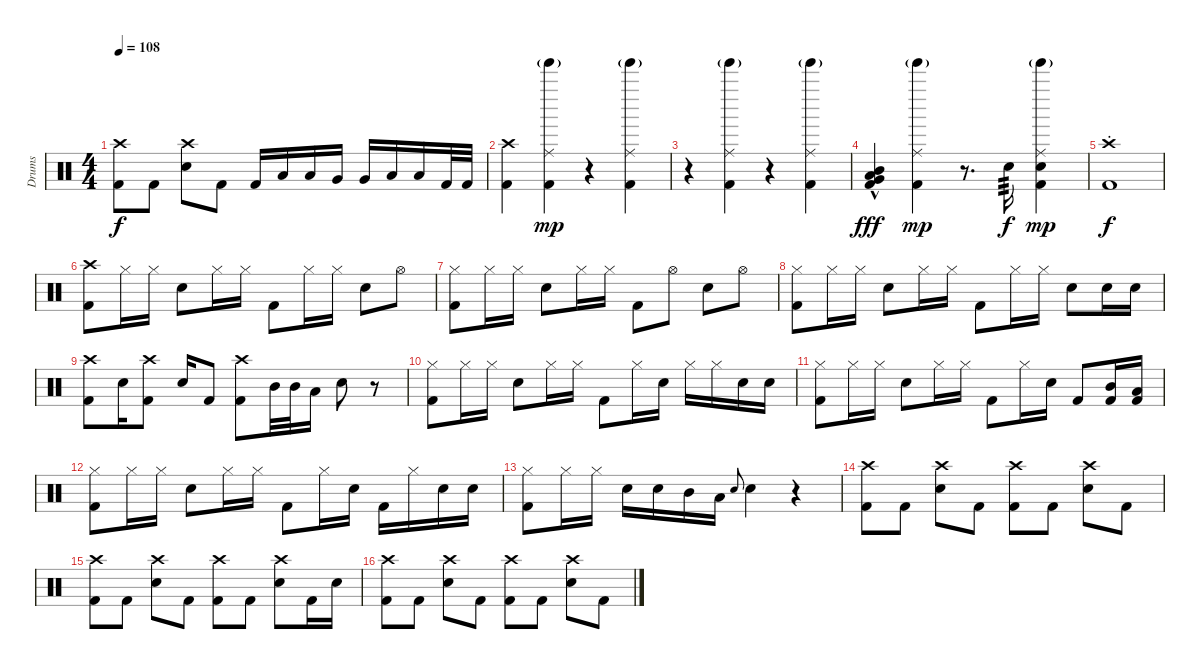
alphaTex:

\track ("Drums" "Drums") {instrument percussion}
\staff {score}
\articulation defaults
\ts (4 4)
\tempo 108
\clef neutral
\ks c
("Crash high (hit)" "Kick (hit) 2").8{dy f} "Kick (hit) 2".8 ("Crash high (hit)" "Electric Snare (hit)").8 "Kick (hit) 2".8 "Kick (hit) 2".16 "Low Tom (hit)".16 "Low Tom (hit)".16 "Very Low Tom (hit)".16 "Very Low Tom (hit)".16 "Low Floor Tom (hit)".16 "Low Floor Tom (hit)".16 "Kick (hit) 2".32 "Kick (hit) 2".32 |
("Crash high (hit)" "Kick (hit) 2").4 ("Tinkle Bell (hit)"{g} "Ride (middle)" "Kick (hit) 2").4{dy mp} r.4 ("Tinkle Bell (hit)"{g} "Ride (middle)" "Kick (hit) 2").4 |
r.4 ("Tinkle Bell (hit)"{g} "Ride (middle)" "Kick (hit) 2").4 r.4 ("Tinkle Bell (hit)"{g} "Ride (middle)" "Kick (hit) 2").4 |
("Very Low Tom (hit)" "Mid Tom (hit)"{hac} "Low Tom (hit)"{hac} "Kick (hit) 2"{hac}).4{dy fff} ("Tinkle Bell (hit)"{g} "Ride (middle)" "Kick (hit) 2").4{dy mp} r.8{d} "Electric Snare (hit)".16{tp 3 dy f} ("Tinkle Bell (hit)"{g} "Ride (middle)" "Electric Snare (hit)" "Kick (hit) 2").4{dy mp} |
("Crash high (hit)"{st} "Kick (hit) 2").1{dy f} |
("Crash high (hit)" "Kick (hit) 2").8 "Hi-Hat (closed)".16 "Hi-Hat (closed)".16 "Electric Snare (hit)".8 "Hi-Hat (closed)".16 "Hi-Hat (closed)".16 "Kick (hit) 2".8 "Hi-Hat (closed)".16 "Hi-Hat (closed)".16 "Electric Snare (hit)".8 "Hi-Hat (open)".8 |
("Hi-Hat (closed)" "Kick (hit) 2").8 "Hi-Hat (closed)".16 "Hi-Hat (closed)".16 "Electric Snare (hit)".8 "Hi-Hat (closed)".16 "Hi-Hat (closed)".16 "Kick (hit) 2".8 "Hi-Hat (open)".8 "Electric Snare (hit)".8 "Hi-Hat (open)".8 |
("Hi-Hat (closed)" "Kick (hit) 2").8 "Hi-Hat (closed)".16 "Hi-Hat (closed)".16 "Electric Snare (hit)".8 "Hi-Hat (closed)".16 "Hi-Hat (closed)".16 "Kick (hit) 2".8 "Hi-Hat (closed)".16 "Hi-Hat (closed)".16 "Electric Snare (hit)".8 "Electric Snare (hit)".16 "Electric Snare (hit)".16 |
("Crash high (hit)" "Kick (hit) 2").8 "Electric Snare (hit)".16 ("Crash high (hit)" "Kick (hit) 2").8 "Electric Snare (hit)".16 "Kick (hit) 2".8 ("Crash high (hit)" "Kick (hit) 2").8 "Mid Tom (hit)".32 "Mid Tom (hit)".32 "Low Tom (hit)".16 "Electric Snare (hit)".8 r.8 |
("Hi-Hat (closed)" "Kick (hit) 2").8 "Hi-Hat (closed)".16 "Hi-Hat (closed)".16 "Electric Snare (hit)".8 "Hi-Hat (closed)".16 "Hi-Hat (closed)".16 "Kick (hit) 2".8 "Hi-Hat (closed)".16 "Electric Snare (hit)".16 "Hi-Hat (closed)".16 "Hi-Hat (closed)".16 "Electric Snare (hit)".16 "Electric Snare (hit)".16 |
("Hi-Hat (closed)" "Kick (hit) 2").8 "Hi-Hat (closed)".16 "Hi-Hat (closed)".16 "Electric Snare (hit)".8 "Hi-Hat (closed)".16 "Hi-Hat (closed)".16 "Kick (hit) 2".8 "Hi-Hat (closed)".16 "Electric Snare (hit)".16 "Kick (hit) 2".8 ("Mid Tom (hit)" "Kick (hit) 2").16 ("Low Tom (hit)" "Kick (hit) 2").16 |
("Hi-Hat (closed)" "Kick (hit) 2").8 "Hi-Hat (closed)".16 "Hi-Hat (closed)".16 "Electric Snare (hit)".8 "Hi-Hat (closed)".16 "Hi-Hat (closed)".16 "Kick (hit) 2".8 "Hi-Hat (closed)".16 "Electric Snare (hit)".16 "Kick (hit) 2".16 "Hi-Hat (closed)".16 "Electric Snare (hit)".16 "Electric Snare (hit)".16 |
("Hi-Hat (closed)" "Kick (hit) 2").8 "Hi-Hat (closed)".16 "Hi-Hat (closed)".16 "Electric Snare (hit)".16 "Electric Snare (hit)".16 "Mid Tom (hit)".16 "Low Tom (hit)".16 "Electric Snare (hit)".8{gr onbeat} "Electric Snare (hit)".4 r.4 |
("Crash high (hit)" "Kick (hit) 2").8 "Kick (hit) 2".8 ("Crash high (hit)" "Electric Snare (hit)").8 "Kick (hit) 2".8 ("Crash high (hit)" "Kick (hit) 2").8 "Kick (hit) 2".8 ("Crash high (hit)" "Electric Snare (hit)").8 "Kick (hit) 2".8 |
("Crash high (hit)" "Kick (hit) 2").8 "Kick (hit) 2".8 ("Crash high (hit)" "Electric Snare (hit)").8 "Kick (hit) 2".8 ("Crash high (hit)" "Kick (hit) 2").8 "Kick (hit) 2".8 ("Crash high (hit)" "Electric Snare (hit)").8 "Kick (hit) 2".16 "Electric Snare (hit)".16 |
("Crash high (hit)" "Kick (hit) 2").8 "Kick (hit) 2".8 ("Crash high (hit)" "Electric Snare (hit)").8 "Kick (hit) 2".8 ("Crash high (hit)" "Kick (hit) 2").8 "Kick (hit) 2".8 ("Crash high (hit)" "Electric Snare (hit)").8 "Kick (hit) 2".8
